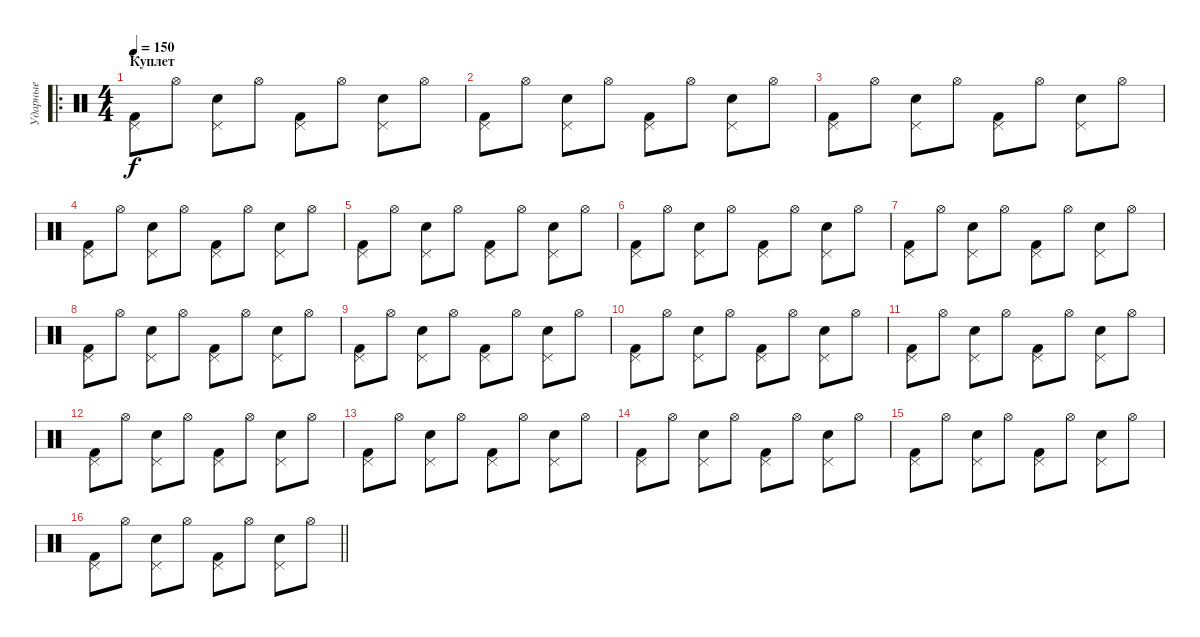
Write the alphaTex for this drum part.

\track ("Ударные" "Ударные") {instrument percussion}
\staff {score}
\articulation defaults
\ro
\ts (4 4)
\section ("" "Куплет")
\tempo 150
\clef neutral
\ks c
("Pedal Hi-Hat (hit)" "Kick (hit) 2").8{dy f} "Hi-Hat (open)".8 ("Pedal Hi-Hat (hit)" "Snare (hit) 2").8 "Hi-Hat (open)".8 ("Pedal Hi-Hat (hit)" "Kick (hit) 2").8 "Hi-Hat (open)".8 ("Pedal Hi-Hat (hit)" "Snare (hit) 2").8 "Hi-Hat (open)".8 |
("Pedal Hi-Hat (hit)" "Kick (hit) 2").8 "Hi-Hat (open)".8 ("Pedal Hi-Hat (hit)" "Snare (hit) 2").8 "Hi-Hat (open)".8 ("Pedal Hi-Hat (hit)" "Kick (hit) 2").8 "Hi-Hat (open)".8 ("Pedal Hi-Hat (hit)" "Snare (hit) 2").8 "Hi-Hat (open)".8 |
("Pedal Hi-Hat (hit)" "Kick (hit) 2").8 "Hi-Hat (open)".8 ("Pedal Hi-Hat (hit)" "Snare (hit) 2").8 "Hi-Hat (open)".8 ("Pedal Hi-Hat (hit)" "Kick (hit) 2").8 "Hi-Hat (open)".8 ("Pedal Hi-Hat (hit)" "Snare (hit) 2").8 "Hi-Hat (open)".8 |
("Pedal Hi-Hat (hit)" "Kick (hit) 2").8 "Hi-Hat (open)".8 ("Pedal Hi-Hat (hit)" "Snare (hit) 2").8 "Hi-Hat (open)".8 ("Pedal Hi-Hat (hit)" "Kick (hit) 2").8 "Hi-Hat (open)".8 ("Pedal Hi-Hat (hit)" "Snare (hit) 2").8 "Hi-Hat (open)".8 |
("Pedal Hi-Hat (hit)" "Kick (hit) 2").8 "Hi-Hat (open)".8 ("Pedal Hi-Hat (hit)" "Snare (hit) 2").8 "Hi-Hat (open)".8 ("Pedal Hi-Hat (hit)" "Kick (hit) 2").8 "Hi-Hat (open)".8 ("Pedal Hi-Hat (hit)" "Snare (hit) 2").8 "Hi-Hat (open)".8 |
("Pedal Hi-Hat (hit)" "Kick (hit) 2").8 "Hi-Hat (open)".8 ("Pedal Hi-Hat (hit)" "Snare (hit) 2").8 "Hi-Hat (open)".8 ("Pedal Hi-Hat (hit)" "Kick (hit) 2").8 "Hi-Hat (open)".8 ("Pedal Hi-Hat (hit)" "Snare (hit) 2").8 "Hi-Hat (open)".8 |
("Pedal Hi-Hat (hit)" "Kick (hit) 2").8 "Hi-Hat (open)".8 ("Pedal Hi-Hat (hit)" "Snare (hit) 2").8 "Hi-Hat (open)".8 ("Pedal Hi-Hat (hit)" "Kick (hit) 2").8 "Hi-Hat (open)".8 ("Pedal Hi-Hat (hit)" "Snare (hit) 2").8 "Hi-Hat (open)".8 |
("Pedal Hi-Hat (hit)" "Kick (hit) 2").8 "Hi-Hat (open)".8 ("Pedal Hi-Hat (hit)" "Snare (hit) 2").8 "Hi-Hat (open)".8 ("Pedal Hi-Hat (hit)" "Kick (hit) 2").8 "Hi-Hat (open)".8 ("Pedal Hi-Hat (hit)" "Snare (hit) 2").8 "Hi-Hat (open)".8 |
("Pedal Hi-Hat (hit)" "Kick (hit) 2").8 "Hi-Hat (open)".8 ("Pedal Hi-Hat (hit)" "Snare (hit) 2").8 "Hi-Hat (open)".8 ("Pedal Hi-Hat (hit)" "Kick (hit) 2").8 "Hi-Hat (open)".8 ("Pedal Hi-Hat (hit)" "Snare (hit) 2").8 "Hi-Hat (open)".8 |
("Pedal Hi-Hat (hit)" "Kick (hit) 2").8 "Hi-Hat (open)".8 ("Pedal Hi-Hat (hit)" "Snare (hit) 2").8 "Hi-Hat (open)".8 ("Pedal Hi-Hat (hit)" "Kick (hit) 2").8 "Hi-Hat (open)".8 ("Pedal Hi-Hat (hit)" "Snare (hit) 2").8 "Hi-Hat (open)".8 |
("Pedal Hi-Hat (hit)" "Kick (hit) 2").8 "Hi-Hat (open)".8 ("Pedal Hi-Hat (hit)" "Snare (hit) 2").8 "Hi-Hat (open)".8 ("Pedal Hi-Hat (hit)" "Kick (hit) 2").8 "Hi-Hat (open)".8 ("Pedal Hi-Hat (hit)" "Snare (hit) 2").8 "Hi-Hat (open)".8 |
("Pedal Hi-Hat (hit)" "Kick (hit) 2").8 "Hi-Hat (open)".8 ("Pedal Hi-Hat (hit)" "Snare (hit) 2").8 "Hi-Hat (open)".8 ("Pedal Hi-Hat (hit)" "Kick (hit) 2").8 "Hi-Hat (open)".8 ("Pedal Hi-Hat (hit)" "Snare (hit) 2").8 "Hi-Hat (open)".8 |
("Pedal Hi-Hat (hit)" "Kick (hit) 2").8 "Hi-Hat (open)".8 ("Pedal Hi-Hat (hit)" "Snare (hit) 2").8 "Hi-Hat (open)".8 ("Pedal Hi-Hat (hit)" "Kick (hit) 2").8 "Hi-Hat (open)".8 ("Pedal Hi-Hat (hit)" "Snare (hit) 2").8 "Hi-Hat (open)".8 |
("Pedal Hi-Hat (hit)" "Kick (hit) 2").8 "Hi-Hat (open)".8 ("Pedal Hi-Hat (hit)" "Snare (hit) 2").8 "Hi-Hat (open)".8 ("Pedal Hi-Hat (hit)" "Kick (hit) 2").8 "Hi-Hat (open)".8 ("Pedal Hi-Hat (hit)" "Snare (hit) 2").8 "Hi-Hat (open)".8 |
("Pedal Hi-Hat (hit)" "Kick (hit) 2").8 "Hi-Hat (open)".8 ("Pedal Hi-Hat (hit)" "Snare (hit) 2").8 "Hi-Hat (open)".8 ("Pedal Hi-Hat (hit)" "Kick (hit) 2").8 "Hi-Hat (open)".8 ("Pedal Hi-Hat (hit)" "Snare (hit) 2").8 "Hi-Hat (open)".8 |
\barLineRight lightlight
("Pedal Hi-Hat (hit)" "Kick (hit) 2").8 "Hi-Hat (open)".8 ("Pedal Hi-Hat (hit)" "Snare (hit) 2").8 "Hi-Hat (open)".8 ("Pedal Hi-Hat (hit)" "Kick (hit) 2").8 "Hi-Hat (open)".8 ("Pedal Hi-Hat (hit)" "Snare (hit) 2").8 "Hi-Hat (open)".8
